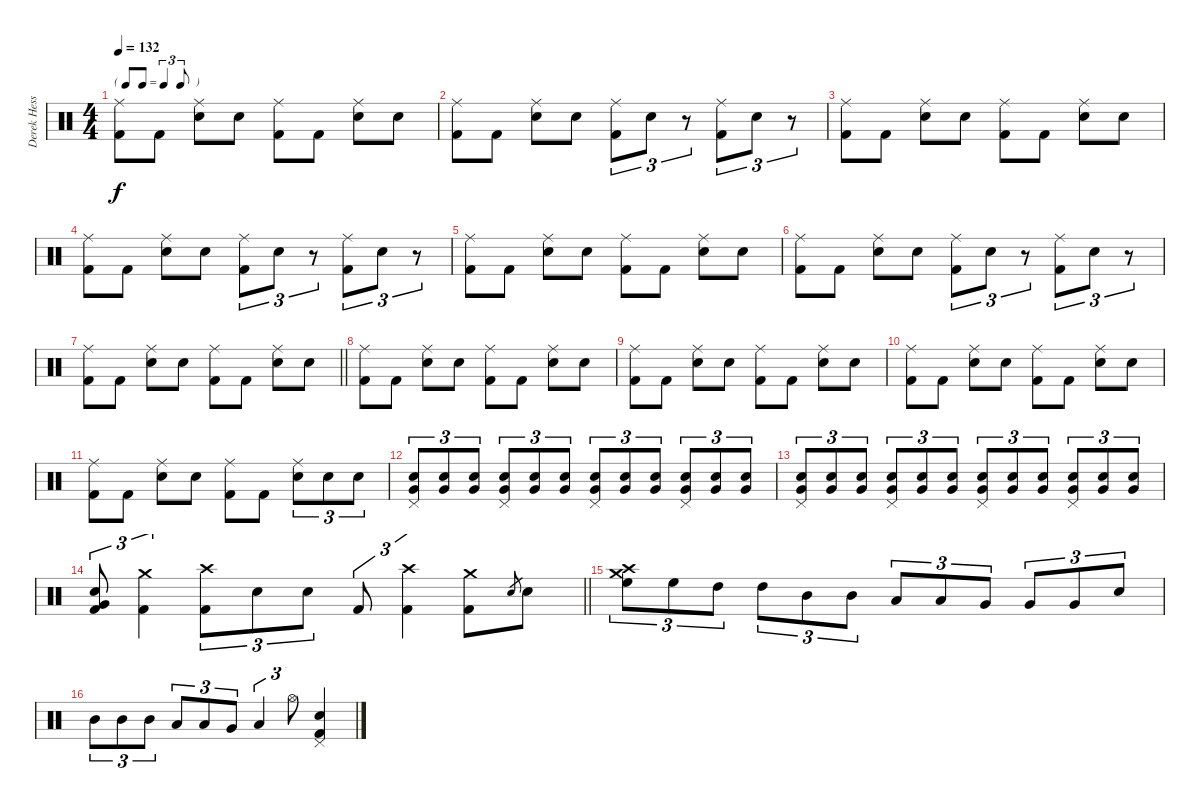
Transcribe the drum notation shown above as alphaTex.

\track ("Derek Hess (Drums and Percussion)" "Derek Hess") {instrument percussion}
\staff {score}
\articulation defaults
\ts (4 4)
\tf triplet8th
\tempo 132
\clef neutral
\ks c
("Ride (middle)" "Kick (hit) 2").8{dy f} "Kick (hit) 2".8 ("Ride (middle)" "Snare (hit) 2").8 "Snare (hit) 2".8 ("Ride (middle)" "Kick (hit) 2").8 "Kick (hit) 2".8 ("Ride (middle)" "Snare (hit) 2").8 "Snare (hit) 2".8 |
("Ride (middle)" "Kick (hit) 2").8 "Kick (hit) 2".8 ("Ride (middle)" "Snare (hit) 2").8 "Snare (hit) 2".8 ("Ride (middle)" "Kick (hit) 2").8{tu (3 2)} "Snare (hit) 2".8{tu (3 2)} r.8{tu (3 2)} ("Ride (middle)" "Kick (hit) 2").8{tu (3 2)} "Snare (hit) 2".8{tu (3 2)} r.8{tu (3 2)} |
("Ride (middle)" "Kick (hit) 2").8 "Kick (hit) 2".8 ("Ride (middle)" "Snare (hit) 2").8 "Snare (hit) 2".8 ("Ride (middle)" "Kick (hit) 2").8 "Kick (hit) 2".8 ("Ride (middle)" "Snare (hit) 2").8 "Snare (hit) 2".8 |
("Ride (middle)" "Kick (hit) 2").8 "Kick (hit) 2".8 ("Ride (middle)" "Snare (hit) 2").8 "Snare (hit) 2".8 ("Ride (middle)" "Kick (hit) 2").8{tu (3 2)} "Snare (hit) 2".8{tu (3 2)} r.8{tu (3 2)} ("Ride (middle)" "Kick (hit) 2").8{tu (3 2)} "Snare (hit) 2".8{tu (3 2)} r.8{tu (3 2)} |
("Ride (middle)" "Kick (hit) 2").8 "Kick (hit) 2".8 ("Ride (middle)" "Snare (hit) 2").8 "Snare (hit) 2".8 ("Ride (middle)" "Kick (hit) 2").8 "Kick (hit) 2".8 ("Ride (middle)" "Snare (hit) 2").8 "Snare (hit) 2".8 |
("Ride (middle)" "Kick (hit) 2").8 "Kick (hit) 2".8 ("Ride (middle)" "Snare (hit) 2").8 "Snare (hit) 2".8 ("Ride (middle)" "Kick (hit) 2").8{tu (3 2)} "Snare (hit) 2".8{tu (3 2)} r.8{tu (3 2)} ("Ride (middle)" "Kick (hit) 2").8{tu (3 2)} "Snare (hit) 2".8{tu (3 2)} r.8{tu (3 2)} |
\barLineRight lightlight
("Ride (middle)" "Kick (hit) 2").8 "Kick (hit) 2".8 ("Ride (middle)" "Snare (hit) 2").8 "Snare (hit) 2".8 ("Ride (middle)" "Kick (hit) 2").8 "Kick (hit) 2".8 ("Ride (middle)" "Snare (hit) 2").8 "Snare (hit) 2".8 |
("Ride (middle)" "Kick (hit) 2").8 "Kick (hit) 2".8 ("Ride (middle)" "Snare (hit) 2").8 "Snare (hit) 2".8 ("Ride (middle)" "Kick (hit) 2").8 "Kick (hit) 2".8 ("Ride (middle)" "Snare (hit) 2").8 "Snare (hit) 2".8 |
("Ride (middle)" "Kick (hit) 2").8 "Kick (hit) 2".8 ("Ride (middle)" "Snare (hit) 2").8 "Snare (hit) 2".8 ("Ride (middle)" "Kick (hit) 2").8 "Kick (hit) 2".8 ("Ride (middle)" "Snare (hit) 2").8 "Snare (hit) 2".8 |
("Ride (middle)" "Kick (hit) 2").8 "Kick (hit) 2".8 ("Ride (middle)" "Snare (hit) 2").8 "Snare (hit) 2".8 ("Ride (middle)" "Kick (hit) 2").8 "Kick (hit) 2".8 ("Ride (middle)" "Snare (hit) 2").8 "Snare (hit) 2".8 |
("Ride (middle)" "Kick (hit) 2").8 "Kick (hit) 2".8 ("Ride (middle)" "Snare (hit) 2").8 "Snare (hit) 2".8 ("Ride (middle)" "Kick (hit) 2").8 "Kick (hit) 2".8 ("Ride (middle)" "Snare (hit) 2").8{tu (3 2)} "Snare (hit) 2".8{tu (3 2)} "Snare (hit) 2".8{tu (3 2)} |
("Very Low Tom (hit)" "Snare (hit) 2" "Pedal Hi-Hat (hit)").8{tu (3 2)} ("Very Low Tom (hit)" "Snare (hit) 2").8{tu (3 2)} ("Very Low Tom (hit)" "Snare (hit) 2").8{tu (3 2)} ("Very Low Tom (hit)" "Snare (hit) 2" "Pedal Hi-Hat (hit)").8{tu (3 2)} ("Very Low Tom (hit)" "Snare (hit) 2").8{tu (3 2)} ("Very Low Tom (hit)" "Snare (hit) 2").8{tu (3 2)} ("Very Low Tom (hit)" "Snare (hit) 2" "Pedal Hi-Hat (hit)").8{tu (3 2)} ("Very Low Tom (hit)" "Snare (hit) 2").8{tu (3 2)} ("Very Low Tom (hit)" "Snare (hit) 2").8{tu (3 2)} ("Very Low Tom (hit)" "Snare (hit) 2" "Pedal Hi-Hat (hit)").8{tu (3 2)} ("Very Low Tom (hit)" "Snare (hit) 2").8{tu (3 2)} ("Very Low Tom (hit)" "Snare (hit) 2").8{tu (3 2)} |
("Very Low Tom (hit)" "Snare (hit) 2" "Pedal Hi-Hat (hit)").8{tu (3 2)} ("Very Low Tom (hit)" "Snare (hit) 2").8{tu (3 2)} ("Very Low Tom (hit)" "Snare (hit) 2").8{tu (3 2)} ("Very Low Tom (hit)" "Snare (hit) 2" "Pedal Hi-Hat (hit)").8{tu (3 2)} ("Very Low Tom (hit)" "Snare (hit) 2").8{tu (3 2)} ("Very Low Tom (hit)" "Snare (hit) 2").8{tu (3 2)} ("Very Low Tom (hit)" "Snare (hit) 2" "Pedal Hi-Hat (hit)").8{tu (3 2)} ("Very Low Tom (hit)" "Snare (hit) 2").8{tu (3 2)} ("Very Low Tom (hit)" "Snare (hit) 2").8{tu (3 2)} ("Very Low Tom (hit)" "Snare (hit) 2" "Pedal Hi-Hat (hit)").8{tu (3 2)} ("Very Low Tom (hit)" "Snare (hit) 2").8{tu (3 2)} ("Very Low Tom (hit)" "Snare (hit) 2").8{tu (3 2)} |
\barLineRight lightlight
("Very Low Tom (hit)" "Snare (hit) 2" "Kick (hit) 2").8{tu (3 2)} ("Crash medium (hit)" "Kick (hit) 2").4{tu (3 2)} ("Crash high (hit)" "Kick (hit) 2").8{tu (3 2)} "Snare (hit) 2".8{tu (3 2)} "Snare (hit) 2".8{tu (3 2)} "Kick (hit) 2".8{tu (3 2)} ("Crash high (hit)" "Kick (hit) 2").4{tu (3 2)} ("Crash medium (hit)" "Kick (hit) 2").8 "Snare (hit) 2".8{gr} "Snare (hit) 2".8 |
("Crash medium (hit)" "Crash high (hit)" "High Floor Tom (hit)").8{tu (3 2)} "High Floor Tom (hit)".8{tu (3 2)} "High Tom (hit)".8{tu (3 2)} "High Tom (hit)".8{tu (3 2)} "Mid Tom (hit)".8{tu (3 2)} "Mid Tom (hit)".8{tu (3 2)} "Low Tom (hit)".8{tu (3 2)} "Low Tom (hit)".8{tu (3 2)} "Very Low Tom (hit)".8{tu (3 2)} "Very Low Tom (hit)".8{tu (3 2)} "Very Low Tom (hit)".8{tu (3 2)} "Snare (hit) 2".8{tu (3 2)} |
"Mid Tom (hit)".8{tu (3 2)} "Mid Tom (hit)".8{tu (3 2)} "Mid Tom (hit)".8{tu (3 2)} "Low Tom (hit)".8{tu (3 2)} "Low Tom (hit)".8{tu (3 2)} "Very Low Tom (hit)".8{tu (3 2)} "Low Floor Tom (hit)".4{tu (3 2)} "Hi-Hat (open)".8{tu (3 2)} ("Snare (hit) 2" "Pedal Hi-Hat (hit)" "Kick (hit) 2").4
